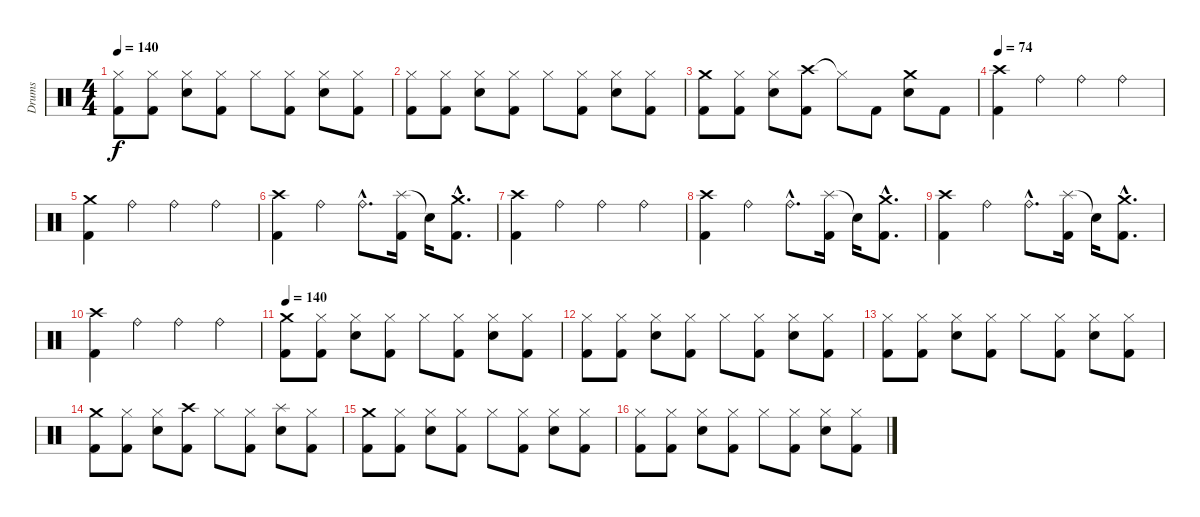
\track ("Drums" "Drums") {instrument percussion}
\staff {score}
\articulation defaults
\ts (4 4)
\tempo 140
\clef neutral
\ks c
("Hi-Hat (closed)" "Kick (hit) 2").8{dy f} ("Hi-Hat (closed)" "Kick (hit) 2").8 ("Hi-Hat (closed)" "Electric Snare (hit)").8 ("Hi-Hat (closed)" "Kick (hit) 2").8 "Hi-Hat (closed)".8 ("Hi-Hat (closed)" "Kick (hit) 2").8 ("Hi-Hat (closed)" "Electric Snare (hit)").8 ("Hi-Hat (closed)" "Kick (hit) 2").8 |
("Hi-Hat (closed)" "Kick (hit) 2").8 ("Hi-Hat (closed)" "Kick (hit) 2").8 ("Hi-Hat (closed)" "Electric Snare (hit)").8 ("Hi-Hat (closed)" "Kick (hit) 2").8 "Hi-Hat (closed)".8 ("Hi-Hat (closed)" "Kick (hit) 2").8 ("Hi-Hat (closed)" "Electric Snare (hit)").8 ("Hi-Hat (closed)" "Kick (hit) 2").8 |
("Crash medium (hit)" "Kick (hit) 2").8 ("Hi-Hat (closed)" "Kick (hit) 2").8 ("Hi-Hat (closed)" "Electric Snare (hit)").8 ("Crash high (hit)" "Kick (hit) 2").8 "Hi-Hat (closed)"{t}.8 "Kick (hit) 2".8 ("Crash medium (hit)" "Electric Snare (hit)").8 "Kick (hit) 2".8 |
\tempo 74
("Crash high (hit)" "Kick (hit) 2").4 "Ride (bell)".4 "Ride (bell)".4 "Ride (bell)".4 |
("Crash medium (hit)" "Kick (hit) 2").4 "Ride (bell)".4 "Ride (bell)".4 "Ride (bell)".4 |
("Crash high (hit)" "Kick (hit) 2").4 "Ride (bell)".4 "Ride (bell)"{hac}.8{d} ("Splash (hit)" "Kick (hit) 2").16 "Snare (hit)"{t}.16 ("Crash medium (hit)"{hac} "Kick (hit) 2"{hac}).8{d} |
("Crash high (hit)" "Kick (hit) 2").4 "Ride (bell)".4 "Ride (bell)".4 "Ride (bell)".4 |
("Crash high (hit)" "Kick (hit) 2").4 "Ride (bell)".4 "Ride (bell)"{hac}.8{d} ("Splash (hit)" "Kick (hit) 2").16 "Snare (hit)"{t}.16 ("Crash medium (hit)"{hac} "Kick (hit) 2"{hac}).8{d} |
("Crash high (hit)" "Kick (hit) 2").4 "Ride (bell)".4 "Ride (bell)"{hac}.8{d} ("Splash (hit)" "Kick (hit) 2").16 "Snare (hit)"{t}.16 ("Crash medium (hit)"{hac} "Kick (hit) 2"{hac}).8{d} |
("Crash high (hit)" "Kick (hit) 2").4 "Ride (bell)".4 "Ride (bell)".4 "Ride (bell)".4 |
\tempo 140
("Crash medium (hit)" "Kick (hit) 2").8 ("Hi-Hat (closed)" "Kick (hit) 2").8 ("Hi-Hat (closed)" "Electric Snare (hit)").8 ("Hi-Hat (closed)" "Kick (hit) 2").8 "Hi-Hat (closed)".8 ("Hi-Hat (closed)" "Kick (hit) 2").8 ("Hi-Hat (closed)" "Electric Snare (hit)").8 ("Hi-Hat (closed)" "Kick (hit) 2").8 |
("Hi-Hat (closed)" "Kick (hit) 2").8 ("Hi-Hat (closed)" "Kick (hit) 2").8 ("Hi-Hat (closed)" "Electric Snare (hit)").8 ("Hi-Hat (closed)" "Kick (hit) 2").8 "Hi-Hat (closed)".8 ("Hi-Hat (closed)" "Kick (hit) 2").8 ("Hi-Hat (closed)" "Electric Snare (hit)").8 ("Hi-Hat (closed)" "Kick (hit) 2").8 |
("Hi-Hat (closed)" "Kick (hit) 2").8 ("Hi-Hat (closed)" "Kick (hit) 2").8 ("Hi-Hat (closed)" "Electric Snare (hit)").8 ("Hi-Hat (closed)" "Kick (hit) 2").8 "Hi-Hat (closed)".8 ("Hi-Hat (closed)" "Kick (hit) 2").8 ("Hi-Hat (closed)" "Electric Snare (hit)").8 ("Hi-Hat (closed)" "Kick (hit) 2").8 |
("Crash medium (hit)" "Kick (hit) 2").8 ("Hi-Hat (closed)" "Kick (hit) 2").8 ("Hi-Hat (closed)" "Electric Snare (hit)").8 ("Crash high (hit)" "Kick (hit) 2").8 "Hi-Hat (closed)".8 ("Hi-Hat (closed)" "Kick (hit) 2").8 ("Splash (hit)" "Electric Snare (hit)").8 ("Hi-Hat (closed)" "Kick (hit) 2").8 |
("Crash medium (hit)" "Kick (hit) 2").8 ("Hi-Hat (closed)" "Kick (hit) 2").8 ("Hi-Hat (closed)" "Electric Snare (hit)").8 ("Hi-Hat (closed)" "Kick (hit) 2").8 "Hi-Hat (closed)".8 ("Hi-Hat (closed)" "Kick (hit) 2").8 ("Hi-Hat (closed)" "Electric Snare (hit)").8 ("Hi-Hat (closed)" "Kick (hit) 2").8 |
("Hi-Hat (closed)" "Kick (hit) 2").8 ("Hi-Hat (closed)" "Kick (hit) 2").8 ("Hi-Hat (closed)" "Electric Snare (hit)").8 ("Hi-Hat (closed)" "Kick (hit) 2").8 "Hi-Hat (closed)".8 ("Hi-Hat (closed)" "Kick (hit) 2").8 ("Hi-Hat (closed)" "Electric Snare (hit)").8 ("Hi-Hat (closed)" "Kick (hit) 2").8
